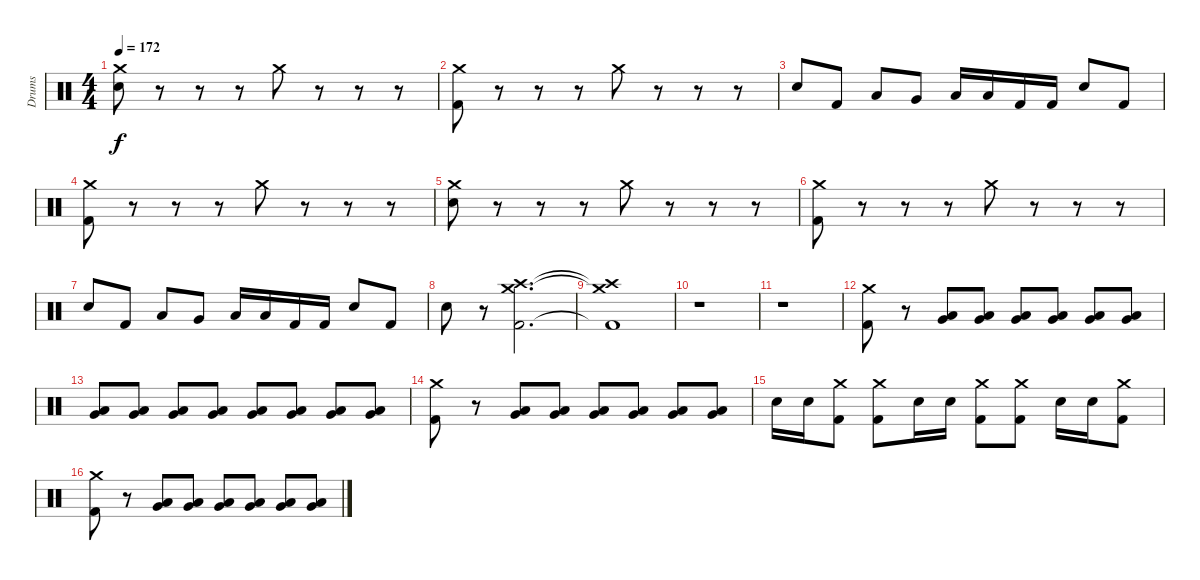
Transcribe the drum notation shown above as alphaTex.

\track ("Drums" "Drums") {instrument percussion}
\staff {score}
\articulation defaults
\ts (4 4)
\tempo 172
\clef neutral
\ks c
("Crash medium (hit)" "Electric Snare (hit)").8{dy f} r.8 r.8 r.8 "Crash medium (hit)".8 r.8 r.8 r.8 |
("Crash medium (hit)" "Kick (hit) 2").8 r.8 r.8 r.8 "Crash medium (hit)".8 r.8 r.8 r.8 |
"Electric Snare (hit)".8 "Kick (hit) 2".8 "Low Tom (hit)".8 "Very Low Tom (hit)".8 "Low Floor Tom (hit)".16 "Low Floor Tom (hit)".16 "Kick (hit) 2".16 "Kick (hit) 2".16 "Electric Snare (hit)".8 "Kick (hit) 2".8 |
("Crash medium (hit)" "Kick (hit) 2").8 r.8 r.8 r.8 "Crash medium (hit)".8 r.8 r.8 r.8 |
("Crash medium (hit)" "Electric Snare (hit)").8 r.8 r.8 r.8 "Crash medium (hit)".8 r.8 r.8 r.8 |
("Crash medium (hit)" "Kick (hit) 2").8 r.8 r.8 r.8 "Crash medium (hit)".8 r.8 r.8 r.8 |
"Electric Snare (hit)".8 "Kick (hit) 2".8 "Low Tom (hit)".8 "Very Low Tom (hit)".8 "Low Floor Tom (hit)".16 "Low Floor Tom (hit)".16 "Kick (hit) 2".16 "Kick (hit) 2".16 "Electric Snare (hit)".8 "Kick (hit) 2".8 |
"Electric Snare (hit)".8 r.8 ("Crash medium (hit)" "Crash high (hit)" "Kick (hit) 2").2{d} |
("Crash medium (hit)"{t} "Crash high (hit)"{t} "Kick (hit) 2"{t}).1 |
r.1 |
r.1 |
("Crash medium (hit)" "Kick (hit) 2").8 r.8 ("Very Low Tom (hit)" "Low Floor Tom (hit)").8 ("Very Low Tom (hit)" "Low Floor Tom (hit)").8 ("Very Low Tom (hit)" "Low Floor Tom (hit)").8 ("Very Low Tom (hit)" "Low Floor Tom (hit)").8 ("Very Low Tom (hit)" "Low Floor Tom (hit)").8 ("Very Low Tom (hit)" "Low Floor Tom (hit)").8 |
("Very Low Tom (hit)" "Low Floor Tom (hit)").8 ("Very Low Tom (hit)" "Low Floor Tom (hit)").8 ("Very Low Tom (hit)" "Low Floor Tom (hit)").8 ("Very Low Tom (hit)" "Low Floor Tom (hit)").8 ("Very Low Tom (hit)" "Low Floor Tom (hit)").8 ("Very Low Tom (hit)" "Low Floor Tom (hit)").8 ("Very Low Tom (hit)" "Low Floor Tom (hit)").8 ("Very Low Tom (hit)" "Low Floor Tom (hit)").8 |
("Crash medium (hit)" "Kick (hit) 2").8 r.8 ("Very Low Tom (hit)" "Low Floor Tom (hit)").8 ("Very Low Tom (hit)" "Low Floor Tom (hit)").8 ("Very Low Tom (hit)" "Low Floor Tom (hit)").8 ("Very Low Tom (hit)" "Low Floor Tom (hit)").8 ("Very Low Tom (hit)" "Low Floor Tom (hit)").8 ("Very Low Tom (hit)" "Low Floor Tom (hit)").8 |
"Electric Snare (hit)".16 "Electric Snare (hit)".16 ("Crash medium (hit)" "Kick (hit) 2").8 ("Crash medium (hit)" "Kick (hit) 2").8 "Electric Snare (hit)".16 "Electric Snare (hit)".16 ("Crash medium (hit)" "Kick (hit) 2").8 ("Crash medium (hit)" "Kick (hit) 2").8 "Electric Snare (hit)".16 "Electric Snare (hit)".16 ("Crash medium (hit)" "Kick (hit) 2").8 |
("Crash medium (hit)" "Kick (hit) 2").8 r.8 ("Very Low Tom (hit)" "Low Floor Tom (hit)").8 ("Very Low Tom (hit)" "Low Floor Tom (hit)").8 ("Very Low Tom (hit)" "Low Floor Tom (hit)").8 ("Very Low Tom (hit)" "Low Floor Tom (hit)").8 ("Very Low Tom (hit)" "Low Floor Tom (hit)").8 ("Very Low Tom (hit)" "Low Floor Tom (hit)").8
